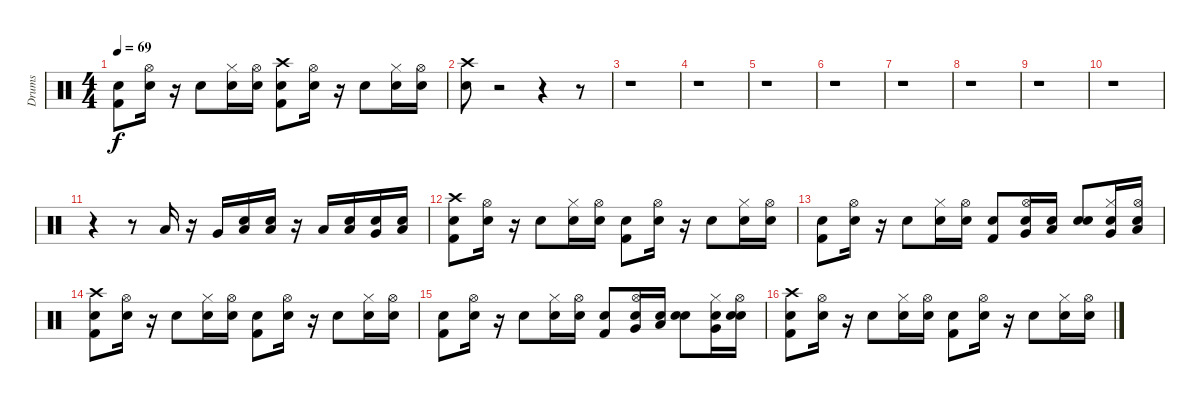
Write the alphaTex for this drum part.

\track ("Drums" "Drums") {instrument percussion}
\staff {score}
\articulation defaults
\ts (4 4)
\tempo 69
\clef neutral
\ks c
("Snare (hit)" "Kick (hit) 2").8{dy f} ("Snare (hit)" "Hi-Hat (open)").16 r.16 "Snare (hit) 2".8 ("Snare (hit)" "Hi-Hat (closed)").16 ("Snare (hit)" "Hi-Hat (open)").16 ("Snare (hit)" "Crash high (hit)" "Kick (hit) 2").8 ("Snare (hit)" "Hi-Hat (open)").16 r.16 "Snare (hit) 2".8 ("Snare (hit)" "Hi-Hat (closed)").16 ("Snare (hit)" "Hi-Hat (open)").16 |
("Snare (hit)" "Crash high (hit)").8 r.2 r.4 r.8 |
r.1 |
r.1 |
r.1 |
r.1 |
r.1 |
r.1 |
r.1 |
r.1 |
r.4 r.8 "Low Tom (hit)".16 r.16 "Very Low Tom (hit)".16 ("Snare (hit)" "Low Floor Tom (hit)").16 ("Snare (hit)" "Low Tom (hit)").16 r.16 "Low Tom (hit)".16 ("Snare (hit)" "Low Tom (hit)").16 ("Snare (hit)" "Very Low Tom (hit)").16 ("Snare (hit)" "Low Floor Tom (hit)").16 |
("Snare (hit)" "Crash high (hit)" "Kick (hit) 2").8 ("Snare (hit)" "Hi-Hat (open)").16 r.16 "Snare (hit) 2".8 ("Snare (hit)" "Hi-Hat (closed)").16 ("Snare (hit)" "Hi-Hat (open)").16 ("Snare (hit)" "Kick (hit) 2").8 ("Snare (hit)" "Hi-Hat (open)").16 r.16 "Snare (hit) 2".8 ("Snare (hit)" "Hi-Hat (closed)").16 ("Snare (hit)" "Hi-Hat (open)").16 |
("Snare (hit)" "Kick (hit) 2").8 ("Snare (hit)" "Hi-Hat (open)").16 r.16 "Snare (hit) 2".8 ("Snare (hit)" "Hi-Hat (closed)").16 ("Snare (hit)" "Hi-Hat (open)").16 ("Snare (hit)" "Kick (hit) 2").8 ("Snare (hit)" "Very Low Tom (hit)" "Hi-Hat (open)").16 ("Snare (hit)" "Low Floor Tom (hit)").16 ("Snare (hit)" "Snare (hit) 2").8 ("Snare (hit)" "Very Low Tom (hit)" "Hi-Hat (closed)").16 ("Snare (hit)" "Low Tom (hit)" "Hi-Hat (open)").16 |
("Snare (hit)" "Crash high (hit)" "Kick (hit) 2").8 ("Snare (hit)" "Hi-Hat (open)").16 r.16 "Snare (hit) 2".8 ("Snare (hit)" "Hi-Hat (closed)").16 ("Snare (hit)" "Hi-Hat (open)").16 ("Snare (hit)" "Kick (hit) 2").8 ("Snare (hit)" "Hi-Hat (open)").16 r.16 "Snare (hit) 2".8 ("Snare (hit)" "Hi-Hat (closed)").16 ("Snare (hit)" "Hi-Hat (open)").16 |
("Snare (hit)" "Kick (hit) 2").8 ("Snare (hit)" "Hi-Hat (open)").16 r.16 "Snare (hit) 2".8 ("Snare (hit)" "Hi-Hat (closed)").16 ("Snare (hit)" "Hi-Hat (open)").16 ("Snare (hit)" "Kick (hit) 2").8 ("Snare (hit)" "Very Low Tom (hit)" "Hi-Hat (open)").16 ("Snare (hit)" "Low Floor Tom (hit)").16 ("Snare (hit)" "Snare (hit) 2").8 ("Snare (hit)" "Very Low Tom (hit)" "Hi-Hat (closed)").16 ("Snare (hit)" "Snare (hit) 2" "Hi-Hat (open)").16 |
("Snare (hit)" "Crash high (hit)" "Kick (hit) 2").8 ("Snare (hit)" "Hi-Hat (open)").16 r.16 "Snare (hit) 2".8 ("Snare (hit)" "Hi-Hat (closed)").16 ("Snare (hit)" "Hi-Hat (open)").16 ("Snare (hit)" "Kick (hit) 2").8 ("Snare (hit)" "Hi-Hat (open)").16 r.16 "Snare (hit) 2".8 ("Snare (hit)" "Hi-Hat (closed)").16 ("Snare (hit)" "Hi-Hat (open)").16
